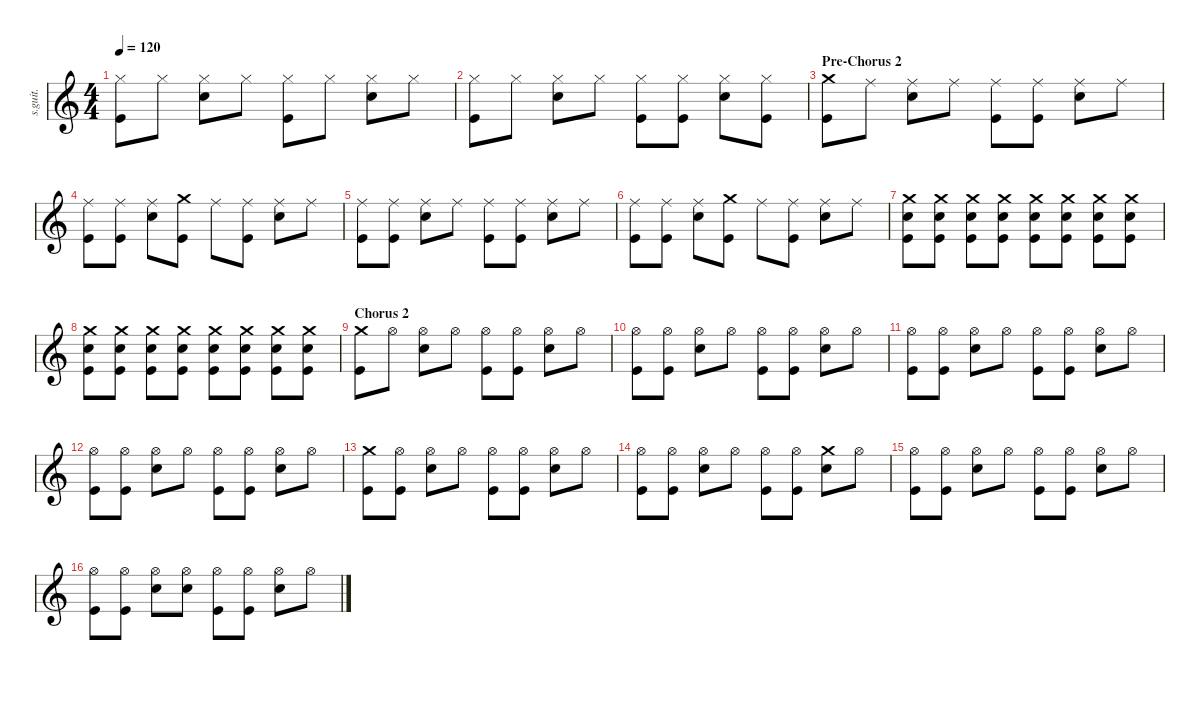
\defaultSystemsLayout 4
\hideDynamics
\bracketExtendMode nobrackets
\track ("Patrick Wilson - Drums" "s.guit.") {instrument percussion}
\staff {score}
\articulation defaults
\ts (4 4)
\tempo 120
\clef g2
\ks c
("Hi-Hat (closed)" "Kick (hit)").8{lyrics (0 "") lyrics (1 "") lyrics (2 "") lyrics (3 "") lyrics (4 "") dy f} "Hi-Hat (closed)".8{lyrics (0 "") lyrics (1 "") lyrics (2 "") lyrics (3 "") lyrics (4 "")} ("Hi-Hat (closed)" "Snare (hit) 2").8{lyrics (0 "") lyrics (1 "") lyrics (2 "") lyrics (3 "") lyrics (4 "")} "Hi-Hat (closed)".8{lyrics (0 "") lyrics (1 "") lyrics (2 "") lyrics (3 "") lyrics (4 "")} ("Hi-Hat (closed)" "Kick (hit)").8{lyrics (0 "") lyrics (1 "") lyrics (2 "") lyrics (3 "") lyrics (4 "")} "Hi-Hat (closed)".8{lyrics (0 "") lyrics (1 "") lyrics (2 "") lyrics (3 "") lyrics (4 "")} ("Hi-Hat (closed)" "Snare (hit) 2").8{lyrics (0 "") lyrics (1 "") lyrics (2 "") lyrics (3 "") lyrics (4 "")} "Hi-Hat (closed)".8{lyrics (0 "") lyrics (1 "") lyrics (2 "") lyrics (3 "") lyrics (4 "")} |
("Hi-Hat (closed)" "Kick (hit)").8{lyrics (0 "") lyrics (1 "") lyrics (2 "") lyrics (3 "") lyrics (4 "")} "Hi-Hat (closed)".8{lyrics (0 "") lyrics (1 "") lyrics (2 "") lyrics (3 "") lyrics (4 "")} ("Hi-Hat (closed)" "Snare (hit) 2").8{lyrics (0 "") lyrics (1 "") lyrics (2 "") lyrics (3 "") lyrics (4 "")} "Hi-Hat (closed)".8{lyrics (0 "") lyrics (1 "") lyrics (2 "") lyrics (3 "") lyrics (4 "")} ("Hi-Hat (closed)" "Kick (hit)").8{lyrics (0 "") lyrics (1 "") lyrics (2 "") lyrics (3 "") lyrics (4 "")} ("Hi-Hat (closed)" "Kick (hit)").8{lyrics (0 "") lyrics (1 "") lyrics (2 "") lyrics (3 "") lyrics (4 "")} ("Hi-Hat (closed)" "Snare (hit) 2").8{lyrics (0 "") lyrics (1 "") lyrics (2 "") lyrics (3 "") lyrics (4 "")} ("Hi-Hat (closed)" "Kick (hit)").8{lyrics (0 "") lyrics (1 "") lyrics (2 "") lyrics (3 "") lyrics (4 "")} |
\section ("" "Pre-Chorus 2")
("Crash medium (hit)" "Kick (hit)").8{lyrics (0 "") lyrics (1 "") lyrics (2 "") lyrics (3 "") lyrics (4 "")} "Ride (middle)".8{lyrics (0 "") lyrics (1 "") lyrics (2 "") lyrics (3 "") lyrics (4 "")} ("Ride (middle)" "Snare (hit) 2").8{lyrics (0 "") lyrics (1 "") lyrics (2 "") lyrics (3 "") lyrics (4 "")} "Ride (middle)".8{lyrics (0 "") lyrics (1 "") lyrics (2 "") lyrics (3 "") lyrics (4 "")} ("Ride (middle)" "Kick (hit)").8{lyrics (0 "") lyrics (1 "") lyrics (2 "") lyrics (3 "") lyrics (4 "")} ("Ride (middle)" "Kick (hit)").8{lyrics (0 "") lyrics (1 "") lyrics (2 "") lyrics (3 "") lyrics (4 "")} ("Ride (middle)" "Snare (hit) 2").8{lyrics (0 "") lyrics (1 "") lyrics (2 "") lyrics (3 "") lyrics (4 "")} "Ride (middle)".8{lyrics (0 "") lyrics (1 "") lyrics (2 "") lyrics (3 "") lyrics (4 "")} |
("Ride (middle)" "Kick (hit)").8{lyrics (0 "") lyrics (1 "") lyrics (2 "") lyrics (3 "") lyrics (4 "")} ("Ride (middle)" "Kick (hit)").8{lyrics (0 "") lyrics (1 "") lyrics (2 "") lyrics (3 "") lyrics (4 "")} ("Ride (middle)" "Snare (hit) 2").8{lyrics (0 "") lyrics (1 "") lyrics (2 "") lyrics (3 "") lyrics (4 "")} ("Crash medium (hit)" "Kick (hit)").8{lyrics (0 "") lyrics (1 "") lyrics (2 "") lyrics (3 "") lyrics (4 "")} "Ride (middle)".8{lyrics (0 "") lyrics (1 "") lyrics (2 "") lyrics (3 "") lyrics (4 "")} ("Ride (middle)" "Kick (hit)").8{lyrics (0 "") lyrics (1 "") lyrics (2 "") lyrics (3 "") lyrics (4 "")} ("Ride (middle)" "Snare (hit) 2").8{lyrics (0 "") lyrics (1 "") lyrics (2 "") lyrics (3 "") lyrics (4 "")} "Ride (middle)".8{lyrics (0 "") lyrics (1 "") lyrics (2 "") lyrics (3 "") lyrics (4 "")} |
("Ride (middle)" "Kick (hit)").8{lyrics (0 "") lyrics (1 "") lyrics (2 "") lyrics (3 "") lyrics (4 "")} ("Ride (middle)" "Kick (hit)").8{lyrics (0 "") lyrics (1 "") lyrics (2 "") lyrics (3 "") lyrics (4 "")} ("Ride (middle)" "Snare (hit) 2").8{lyrics (0 "") lyrics (1 "") lyrics (2 "") lyrics (3 "") lyrics (4 "")} "Ride (middle)".8{lyrics (0 "") lyrics (1 "") lyrics (2 "") lyrics (3 "") lyrics (4 "")} ("Ride (middle)" "Kick (hit)").8{lyrics (0 "") lyrics (1 "") lyrics (2 "") lyrics (3 "") lyrics (4 "")} ("Ride (middle)" "Kick (hit)").8{lyrics (0 "") lyrics (1 "") lyrics (2 "") lyrics (3 "") lyrics (4 "")} ("Ride (middle)" "Snare (hit) 2").8{lyrics (0 "") lyrics (1 "") lyrics (2 "") lyrics (3 "") lyrics (4 "")} "Ride (middle)".8{lyrics (0 "") lyrics (1 "") lyrics (2 "") lyrics (3 "") lyrics (4 "")} |
("Ride (middle)" "Kick (hit)").8{lyrics (0 "") lyrics (1 "") lyrics (2 "") lyrics (3 "") lyrics (4 "")} ("Ride (middle)" "Kick (hit)").8{lyrics (0 "") lyrics (1 "") lyrics (2 "") lyrics (3 "") lyrics (4 "")} ("Ride (middle)" "Snare (hit) 2").8{lyrics (0 "") lyrics (1 "") lyrics (2 "") lyrics (3 "") lyrics (4 "")} ("Crash medium (hit)" "Kick (hit)").8{lyrics (0 "") lyrics (1 "") lyrics (2 "") lyrics (3 "") lyrics (4 "")} "Ride (middle)".8{lyrics (0 "") lyrics (1 "") lyrics (2 "") lyrics (3 "") lyrics (4 "")} ("Ride (middle)" "Kick (hit)").8{lyrics (0 "") lyrics (1 "") lyrics (2 "") lyrics (3 "") lyrics (4 "")} ("Ride (middle)" "Snare (hit) 2").8{lyrics (0 "") lyrics (1 "") lyrics (2 "") lyrics (3 "") lyrics (4 "")} "Ride (middle)".8{lyrics (0 "") lyrics (1 "") lyrics (2 "") lyrics (3 "") lyrics (4 "")} |
("Crash medium (hit)" "Snare (hit) 2" "Kick (hit)").8{lyrics (0 "") lyrics (1 "") lyrics (2 "") lyrics (3 "") lyrics (4 "")} ("Crash medium (hit)" "Snare (hit) 2" "Kick (hit)").8{lyrics (0 "") lyrics (1 "") lyrics (2 "") lyrics (3 "") lyrics (4 "")} ("Crash medium (hit)" "Snare (hit) 2" "Kick (hit)").8{lyrics (0 "") lyrics (1 "") lyrics (2 "") lyrics (3 "") lyrics (4 "")} ("Crash medium (hit)" "Snare (hit) 2" "Kick (hit)").8{lyrics (0 "") lyrics (1 "") lyrics (2 "") lyrics (3 "") lyrics (4 "")} ("Crash medium (hit)" "Snare (hit) 2" "Kick (hit)").8{lyrics (0 "") lyrics (1 "") lyrics (2 "") lyrics (3 "") lyrics (4 "")} ("Crash medium (hit)" "Snare (hit) 2" "Kick (hit)").8{lyrics (0 "") lyrics (1 "") lyrics (2 "") lyrics (3 "") lyrics (4 "")} ("Crash medium (hit)" "Snare (hit) 2" "Kick (hit)").8{lyrics (0 "") lyrics (1 "") lyrics (2 "") lyrics (3 "") lyrics (4 "")} ("Crash medium (hit)" "Snare (hit) 2" "Kick (hit)").8{lyrics (0 "") lyrics (1 "") lyrics (2 "") lyrics (3 "") lyrics (4 "")} |
("Crash medium (hit)" "Snare (hit) 2" "Kick (hit)").8{lyrics (0 "") lyrics (1 "") lyrics (2 "") lyrics (3 "") lyrics (4 "")} ("Crash medium (hit)" "Snare (hit) 2" "Kick (hit)").8{lyrics (0 "") lyrics (1 "") lyrics (2 "") lyrics (3 "") lyrics (4 "")} ("Crash medium (hit)" "Snare (hit) 2" "Kick (hit)").8{lyrics (0 "") lyrics (1 "") lyrics (2 "") lyrics (3 "") lyrics (4 "")} ("Crash medium (hit)" "Snare (hit) 2" "Kick (hit)").8{lyrics (0 "") lyrics (1 "") lyrics (2 "") lyrics (3 "") lyrics (4 "")} ("Crash medium (hit)" "Snare (hit) 2" "Kick (hit)").8{lyrics (0 "") lyrics (1 "") lyrics (2 "") lyrics (3 "") lyrics (4 "")} ("Crash medium (hit)" "Snare (hit) 2" "Kick (hit)").8{lyrics (0 "") lyrics (1 "") lyrics (2 "") lyrics (3 "") lyrics (4 "")} ("Crash medium (hit)" "Snare (hit) 2" "Kick (hit)").8{lyrics (0 "") lyrics (1 "") lyrics (2 "") lyrics (3 "") lyrics (4 "")} ("Crash medium (hit)" "Snare (hit) 2" "Kick (hit)").8{lyrics (0 "") lyrics (1 "") lyrics (2 "") lyrics (3 "") lyrics (4 "")} |
\section ("" "Chorus 2")
("Crash medium (hit)" "Kick (hit)").8{lyrics (0 "") lyrics (1 "") lyrics (2 "") lyrics (3 "") lyrics (4 "")} "Hi-Hat (open)".8{lyrics (0 "") lyrics (1 "") lyrics (2 "") lyrics (3 "") lyrics (4 "")} ("Hi-Hat (open)" "Snare (hit) 2").8{lyrics (0 "") lyrics (1 "") lyrics (2 "") lyrics (3 "") lyrics (4 "")} "Hi-Hat (open)".8{lyrics (0 "") lyrics (1 "") lyrics (2 "") lyrics (3 "") lyrics (4 "")} ("Hi-Hat (open)" "Kick (hit)").8{lyrics (0 "") lyrics (1 "") lyrics (2 "") lyrics (3 "") lyrics (4 "")} ("Hi-Hat (open)" "Kick (hit)").8{lyrics (0 "") lyrics (1 "") lyrics (2 "") lyrics (3 "") lyrics (4 "")} ("Hi-Hat (open)" "Snare (hit) 2").8{lyrics (0 "") lyrics (1 "") lyrics (2 "") lyrics (3 "") lyrics (4 "")} "Hi-Hat (open)".8{lyrics (0 "") lyrics (1 "") lyrics (2 "") lyrics (3 "") lyrics (4 "")} |
("Hi-Hat (open)" "Kick (hit)").8{lyrics (0 "") lyrics (1 "") lyrics (2 "") lyrics (3 "") lyrics (4 "")} ("Hi-Hat (open)" "Kick (hit)").8{lyrics (0 "") lyrics (1 "") lyrics (2 "") lyrics (3 "") lyrics (4 "")} ("Hi-Hat (open)" "Snare (hit) 2").8{lyrics (0 "") lyrics (1 "") lyrics (2 "") lyrics (3 "") lyrics (4 "")} "Hi-Hat (open)".8{lyrics (0 "") lyrics (1 "") lyrics (2 "") lyrics (3 "") lyrics (4 "")} ("Hi-Hat (open)" "Kick (hit)").8{lyrics (0 "") lyrics (1 "") lyrics (2 "") lyrics (3 "") lyrics (4 "")} ("Hi-Hat (open)" "Kick (hit)").8{lyrics (0 "") lyrics (1 "") lyrics (2 "") lyrics (3 "") lyrics (4 "")} ("Hi-Hat (open)" "Snare (hit) 2").8{lyrics (0 "") lyrics (1 "") lyrics (2 "") lyrics (3 "") lyrics (4 "")} "Hi-Hat (open)".8{lyrics (0 "") lyrics (1 "") lyrics (2 "") lyrics (3 "") lyrics (4 "")} |
("Hi-Hat (open)" "Kick (hit)").8{lyrics (0 "") lyrics (1 "") lyrics (2 "") lyrics (3 "") lyrics (4 "")} ("Hi-Hat (open)" "Kick (hit)").8{lyrics (0 "") lyrics (1 "") lyrics (2 "") lyrics (3 "") lyrics (4 "")} ("Hi-Hat (open)" "Snare (hit) 2").8{lyrics (0 "") lyrics (1 "") lyrics (2 "") lyrics (3 "") lyrics (4 "")} "Hi-Hat (open)".8{lyrics (0 "") lyrics (1 "") lyrics (2 "") lyrics (3 "") lyrics (4 "")} ("Hi-Hat (open)" "Kick (hit)").8{lyrics (0 "") lyrics (1 "") lyrics (2 "") lyrics (3 "") lyrics (4 "")} ("Hi-Hat (open)" "Kick (hit)").8{lyrics (0 "") lyrics (1 "") lyrics (2 "") lyrics (3 "") lyrics (4 "")} ("Hi-Hat (open)" "Snare (hit) 2").8{lyrics (0 "") lyrics (1 "") lyrics (2 "") lyrics (3 "") lyrics (4 "")} "Hi-Hat (open)".8{lyrics (0 "") lyrics (1 "") lyrics (2 "") lyrics (3 "") lyrics (4 "")} |
("Hi-Hat (open)" "Kick (hit)").8{lyrics (0 "") lyrics (1 "") lyrics (2 "") lyrics (3 "") lyrics (4 "")} ("Hi-Hat (open)" "Kick (hit)").8{lyrics (0 "") lyrics (1 "") lyrics (2 "") lyrics (3 "") lyrics (4 "")} ("Hi-Hat (open)" "Snare (hit) 2").8{lyrics (0 "") lyrics (1 "") lyrics (2 "") lyrics (3 "") lyrics (4 "")} "Hi-Hat (open)".8{lyrics (0 "") lyrics (1 "") lyrics (2 "") lyrics (3 "") lyrics (4 "")} ("Hi-Hat (open)" "Kick (hit)").8{lyrics (0 "") lyrics (1 "") lyrics (2 "") lyrics (3 "") lyrics (4 "")} ("Hi-Hat (open)" "Kick (hit)").8{lyrics (0 "") lyrics (1 "") lyrics (2 "") lyrics (3 "") lyrics (4 "")} ("Hi-Hat (open)" "Snare (hit) 2").8{lyrics (0 "") lyrics (1 "") lyrics (2 "") lyrics (3 "") lyrics (4 "")} "Hi-Hat (open)".8{lyrics (0 "") lyrics (1 "") lyrics (2 "") lyrics (3 "") lyrics (4 "")} |
("Crash medium (hit)" "Kick (hit)").8{lyrics (0 "") lyrics (1 "") lyrics (2 "") lyrics (3 "") lyrics (4 "")} ("Hi-Hat (open)" "Kick (hit)").8{lyrics (0 "") lyrics (1 "") lyrics (2 "") lyrics (3 "") lyrics (4 "")} ("Hi-Hat (open)" "Snare (hit) 2").8{lyrics (0 "") lyrics (1 "") lyrics (2 "") lyrics (3 "") lyrics (4 "")} "Hi-Hat (open)".8{lyrics (0 "") lyrics (1 "") lyrics (2 "") lyrics (3 "") lyrics (4 "")} ("Hi-Hat (open)" "Kick (hit)").8{lyrics (0 "") lyrics (1 "") lyrics (2 "") lyrics (3 "") lyrics (4 "")} ("Hi-Hat (open)" "Kick (hit)").8{lyrics (0 "") lyrics (1 "") lyrics (2 "") lyrics (3 "") lyrics (4 "")} ("Hi-Hat (open)" "Snare (hit) 2").8{lyrics (0 "") lyrics (1 "") lyrics (2 "") lyrics (3 "") lyrics (4 "")} "Hi-Hat (open)".8{lyrics (0 "") lyrics (1 "") lyrics (2 "") lyrics (3 "") lyrics (4 "")} |
("Hi-Hat (open)" "Kick (hit)").8{lyrics (0 "") lyrics (1 "") lyrics (2 "") lyrics (3 "") lyrics (4 "")} ("Hi-Hat (open)" "Kick (hit)").8{lyrics (0 "") lyrics (1 "") lyrics (2 "") lyrics (3 "") lyrics (4 "")} ("Hi-Hat (open)" "Snare (hit) 2").8{lyrics (0 "") lyrics (1 "") lyrics (2 "") lyrics (3 "") lyrics (4 "")} "Hi-Hat (open)".8{lyrics (0 "") lyrics (1 "") lyrics (2 "") lyrics (3 "") lyrics (4 "")} ("Hi-Hat (open)" "Kick (hit)").8{lyrics (0 "") lyrics (1 "") lyrics (2 "") lyrics (3 "") lyrics (4 "")} ("Hi-Hat (open)" "Kick (hit)").8{lyrics (0 "") lyrics (1 "") lyrics (2 "") lyrics (3 "") lyrics (4 "")} ("Crash medium (hit)" "Snare (hit) 2").8{lyrics (0 "") lyrics (1 "") lyrics (2 "") lyrics (3 "") lyrics (4 "")} "Hi-Hat (open)".8{lyrics (0 "") lyrics (1 "") lyrics (2 "") lyrics (3 "") lyrics (4 "")} |
("Hi-Hat (open)" "Kick (hit)").8{lyrics (0 "") lyrics (1 "") lyrics (2 "") lyrics (3 "") lyrics (4 "")} ("Hi-Hat (open)" "Kick (hit)").8{lyrics (0 "") lyrics (1 "") lyrics (2 "") lyrics (3 "") lyrics (4 "")} ("Hi-Hat (open)" "Snare (hit) 2").8{lyrics (0 "") lyrics (1 "") lyrics (2 "") lyrics (3 "") lyrics (4 "")} "Hi-Hat (open)".8{lyrics (0 "") lyrics (1 "") lyrics (2 "") lyrics (3 "") lyrics (4 "")} ("Hi-Hat (open)" "Kick (hit)").8{lyrics (0 "") lyrics (1 "") lyrics (2 "") lyrics (3 "") lyrics (4 "")} ("Hi-Hat (open)" "Kick (hit)").8{lyrics (0 "") lyrics (1 "") lyrics (2 "") lyrics (3 "") lyrics (4 "")} ("Hi-Hat (open)" "Snare (hit) 2").8{lyrics (0 "") lyrics (1 "") lyrics (2 "") lyrics (3 "") lyrics (4 "")} "Hi-Hat (open)".8{lyrics (0 "") lyrics (1 "") lyrics (2 "") lyrics (3 "") lyrics (4 "")} |
("Hi-Hat (open)" "Kick (hit)").8{lyrics (0 "") lyrics (1 "") lyrics (2 "") lyrics (3 "") lyrics (4 "")} ("Hi-Hat (open)" "Kick (hit)").8{lyrics (0 "") lyrics (1 "") lyrics (2 "") lyrics (3 "") lyrics (4 "")} ("Hi-Hat (open)" "Snare (hit) 2").8{lyrics (0 "") lyrics (1 "") lyrics (2 "") lyrics (3 "") lyrics (4 "")} ("Hi-Hat (open)" "Snare (hit) 2").8{lyrics (0 "") lyrics (1 "") lyrics (2 "") lyrics (3 "") lyrics (4 "")} ("Hi-Hat (open)" "Kick (hit)").8{lyrics (0 "") lyrics (1 "") lyrics (2 "") lyrics (3 "") lyrics (4 "")} ("Hi-Hat (open)" "Kick (hit)").8{lyrics (0 "") lyrics (1 "") lyrics (2 "") lyrics (3 "") lyrics (4 "")} ("Hi-Hat (open)" "Snare (hit) 2").8{lyrics (0 "") lyrics (1 "") lyrics (2 "") lyrics (3 "") lyrics (4 "")} "Hi-Hat (open)".8{lyrics (0 "") lyrics (1 "") lyrics (2 "") lyrics (3 "") lyrics (4 "")}
